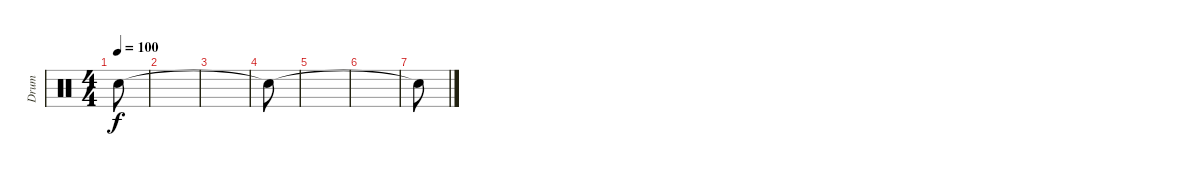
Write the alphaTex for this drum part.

\track ("Drum" "Drum") {instrument percussion}
\staff {score}
\articulation defaults
\ts (4 4)
\tempo 100
\clef neutral
\ks c "Snare (hit)"{t}.8{dy f}
|
|
|
"Snare (hit)"{t}.8 |
|
|
"Snare (hit)"{t}.8
